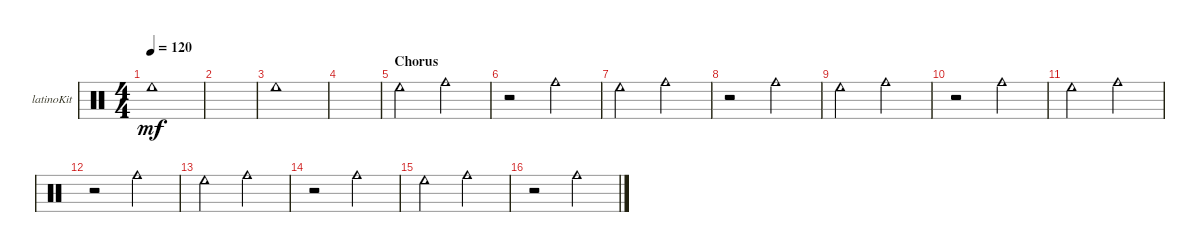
\defaultSystemsLayout 4
\bracketExtendMode groupsimilarinstruments
\firstSystemTrackNameOrientation horizontal
\otherSystemsTrackNameOrientation horizontal
\track ("Kit-Latino" "latinoKit") {instrument percussion}
\staff {score}
\articulation defaults
\ts (4 4)
\tempo 120
\clef neutral
\scale
0.333333
\ks c "Cowbell low (hit)".1{dy mf}
|
\scale
0.333333 |
\scale
0.333333 "Cowbell low (hit)".1 |
\scale
0.333333 |
\section ("" "Chorus")
\scale
0.333333 "Cowbell low (hit)".2 "Cowbell medium (hit)".2 |
\scale
0.333333 r.2 "Cowbell medium (hit)".2 |
\scale
0.333333 "Cowbell low (hit)".2 "Cowbell medium (hit)".2 |
\scale
0.333333 r.2 "Cowbell medium (hit)".2 |
\scale
0.333333 "Cowbell low (hit)".2 "Cowbell medium (hit)".2 |
\scale
0.333333 r.2 "Cowbell medium (hit)".2 |
\scale
0.333333 "Cowbell low (hit)".2 "Cowbell medium (hit)".2 |
\scale
0.333333 r.2 "Cowbell medium (hit)".2 |
\scale
0.333333 "Cowbell low (hit)".2 "Cowbell medium (hit)".2 |
\scale
0.333333 r.2 "Cowbell medium (hit)".2 |
\scale
0.333333 "Cowbell low (hit)".2 "Cowbell medium (hit)".2 |
\scale
0.333333 r.2 "Cowbell medium (hit)".2
